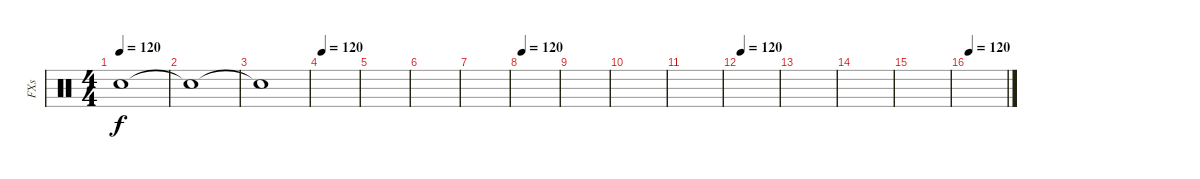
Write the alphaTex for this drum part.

\track ("FXs" "FXs") {instrument percussion}
\staff {score}
\articulation defaults
\ts (4 4)
\tempo 120
\clef neutral
\ks c "Snare (hit)"{t}.1{dy f}
|
"Snare (hit)"{t}.1 |
"Snare (hit)"{t}.1{volume 0} |
\tempo 120
|
|
|
|
\tempo 120
|
|
|
|
\tempo 120
|
|
|
|
\tempo 120
